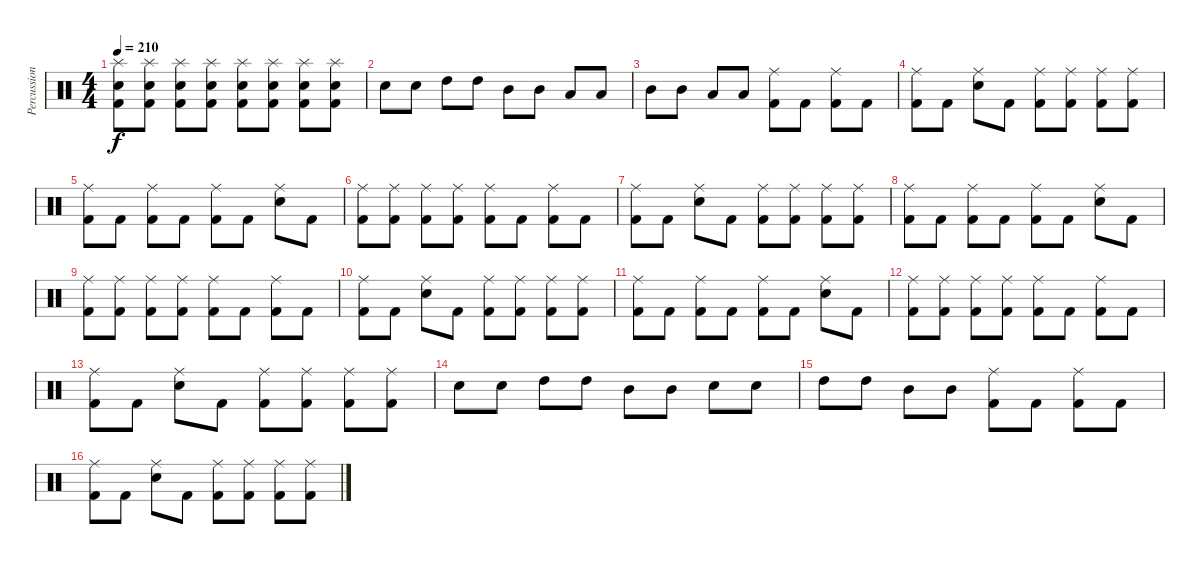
\track ("Percussion" "Percussion") {instrument percussion}
\staff {score}
\articulation defaults
\ts (4 4)
\tempo 210
\clef neutral
\ks c
("Splash (hit)" "Snare (hit) 2" "Kick (hit) 2").8{dy f} ("Splash (hit)" "Snare (hit) 2" "Kick (hit) 2").8 ("Splash (hit)" "Snare (hit) 2" "Kick (hit) 2").8 ("Splash (hit)" "Snare (hit) 2" "Kick (hit) 2").8 ("Splash (hit)" "Snare (hit) 2" "Kick (hit) 2").8 ("Splash (hit)" "Snare (hit) 2" "Kick (hit) 2").8 ("Splash (hit)" "Snare (hit) 2" "Kick (hit) 2").8 ("Splash (hit)" "Snare (hit) 2" "Kick (hit) 2").8 |
"Snare (hit) 2".8 "Snare (hit) 2".8 "High Tom (hit)".8 "High Tom (hit)".8 "Mid Tom (hit)".8 "Mid Tom (hit)".8 "Low Tom (hit)".8 "Low Tom (hit)".8 |
"Mid Tom (hit)".8 "Mid Tom (hit)".8 "Low Floor Tom (hit)".8 "Low Floor Tom (hit)".8 ("Ride (middle)" "Kick (hit) 2").8 "Kick (hit) 2".8 ("Ride (middle)" "Kick (hit) 2").8 "Kick (hit) 2".8 |
("Ride (middle)" "Kick (hit) 2").8 "Kick (hit) 2".8 ("Ride (middle)" "Snare (hit) 2").8 "Kick (hit) 2".8 ("Ride (middle)" "Kick (hit) 2").8 ("Ride (middle)" "Kick (hit) 2").8 ("Ride (middle)" "Kick (hit) 2").8 ("Ride (middle)" "Kick (hit) 2").8 |
("Ride (middle)" "Kick (hit) 2").8 "Kick (hit) 2".8 ("Ride (middle)" "Kick (hit) 2").8 "Kick (hit) 2".8 ("Ride (middle)" "Kick (hit) 2").8 "Kick (hit) 2".8 ("Ride (middle)" "Snare (hit) 2").8 "Kick (hit) 2".8 |
("Ride (middle)" "Kick (hit) 2").8 ("Ride (middle)" "Kick (hit) 2").8 ("Ride (middle)" "Kick (hit) 2").8 ("Ride (middle)" "Kick (hit) 2").8 ("Ride (middle)" "Kick (hit) 2").8 "Kick (hit) 2".8 ("Ride (middle)" "Kick (hit) 2").8 "Kick (hit) 2".8 |
("Ride (middle)" "Kick (hit) 2").8 "Kick (hit) 2".8 ("Ride (middle)" "Snare (hit) 2").8 "Kick (hit) 2".8 ("Ride (middle)" "Kick (hit) 2").8 ("Ride (middle)" "Kick (hit) 2").8 ("Ride (middle)" "Kick (hit) 2").8 ("Ride (middle)" "Kick (hit) 2").8 |
("Ride (middle)" "Kick (hit) 2").8 "Kick (hit) 2".8 ("Ride (middle)" "Kick (hit) 2").8 "Kick (hit) 2".8 ("Ride (middle)" "Kick (hit) 2").8 "Kick (hit) 2".8 ("Ride (middle)" "Snare (hit) 2").8 "Kick (hit) 2".8 |
("Ride (middle)" "Kick (hit) 2").8 ("Ride (middle)" "Kick (hit) 2").8 ("Ride (middle)" "Kick (hit) 2").8 ("Ride (middle)" "Kick (hit) 2").8 ("Ride (middle)" "Kick (hit) 2").8 "Kick (hit) 2".8 ("Ride (middle)" "Kick (hit) 2").8 "Kick (hit) 2".8 |
("Ride (middle)" "Kick (hit) 2").8 "Kick (hit) 2".8 ("Ride (middle)" "Snare (hit) 2").8 "Kick (hit) 2".8 ("Ride (middle)" "Kick (hit) 2").8 ("Ride (middle)" "Kick (hit) 2").8 ("Ride (middle)" "Kick (hit) 2").8 ("Ride (middle)" "Kick (hit) 2").8 |
("Ride (middle)" "Kick (hit) 2").8 "Kick (hit) 2".8 ("Ride (middle)" "Kick (hit) 2").8 "Kick (hit) 2".8 ("Ride (middle)" "Kick (hit) 2").8 "Kick (hit) 2".8 ("Ride (middle)" "Snare (hit) 2").8 "Kick (hit) 2".8 |
("Ride (middle)" "Kick (hit) 2").8 ("Ride (middle)" "Kick (hit) 2").8 ("Ride (middle)" "Kick (hit) 2").8 ("Ride (middle)" "Kick (hit) 2").8 ("Ride (middle)" "Kick (hit) 2").8 "Kick (hit) 2".8 ("Ride (middle)" "Kick (hit) 2").8 "Kick (hit) 2".8 |
("Ride (middle)" "Kick (hit) 2").8 "Kick (hit) 2".8 ("Ride (middle)" "Snare (hit) 2").8 "Kick (hit) 2".8 ("Ride (middle)" "Kick (hit) 2").8 ("Ride (middle)" "Kick (hit) 2").8 ("Ride (middle)" "Kick (hit) 2").8 ("Ride (middle)" "Kick (hit) 2").8 |
"Snare (hit) 2".8 "Snare (hit) 2".8 "High Tom (hit)".8 "High Tom (hit)".8 "Mid Tom (hit)".8 "Mid Tom (hit)".8 "Snare (hit) 2".8 "Snare (hit) 2".8 |
"High Tom (hit)".8 "High Tom (hit)".8 "Mid Tom (hit)".8 "Mid Tom (hit)".8 ("Ride (middle)" "Kick (hit) 2").8 "Kick (hit) 2".8 ("Ride (middle)" "Kick (hit) 2").8 "Kick (hit) 2".8 |
("Ride (middle)" "Kick (hit) 2").8 "Kick (hit) 2".8 ("Ride (middle)" "Snare (hit) 2").8 "Kick (hit) 2".8 ("Ride (middle)" "Kick (hit) 2").8 ("Ride (middle)" "Kick (hit) 2").8 ("Ride (middle)" "Kick (hit) 2").8 ("Ride (middle)" "Kick (hit) 2").8
